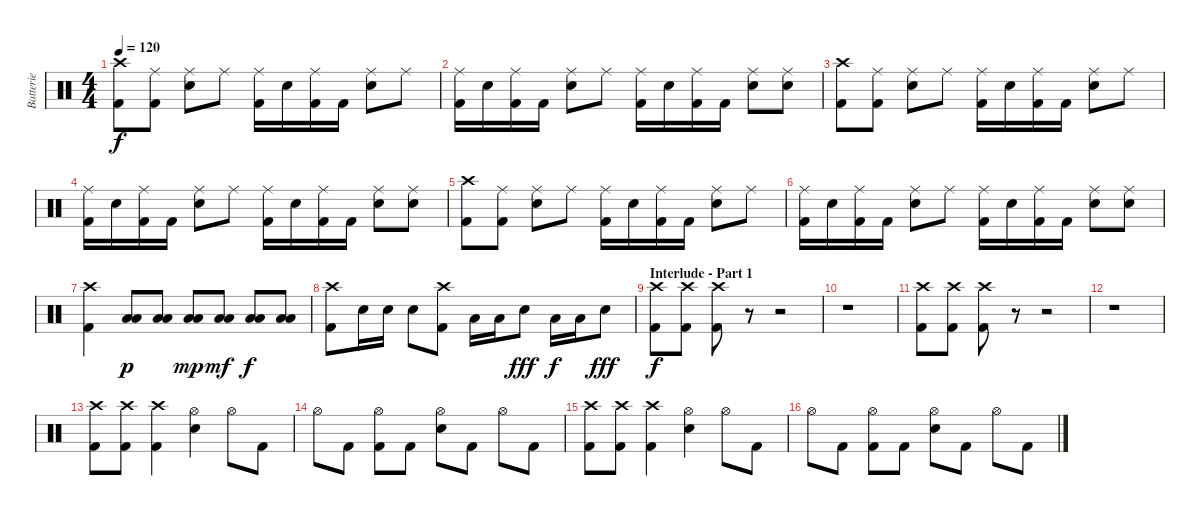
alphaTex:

\track ("Batterie" "Batterie") {instrument percussion}
\staff {score}
\articulation defaults
\ts (4 4)
\tempo 120
\clef neutral
\ks c
("Crash high (hit)" "Kick (hit) 2").8{dy f} ("Ride (middle)" "Kick (hit) 2").8 ("Ride (middle)" "Electric Snare (hit)").8 "Ride (middle)".8 ("Ride (middle)" "Kick (hit) 2").16 "Electric Snare (hit)".16 ("Ride (middle)" "Kick (hit) 2").16 "Kick (hit) 2".16 ("Ride (middle)" "Electric Snare (hit)").8 "Ride (middle)".8 |
("Ride (middle)" "Kick (hit) 2").16 "Electric Snare (hit)".16 ("Ride (middle)" "Kick (hit) 2").16 "Kick (hit) 2".16 ("Ride (middle)" "Electric Snare (hit)").8 "Ride (middle)".8 ("Ride (middle)" "Kick (hit) 2").16 "Electric Snare (hit)".16 ("Ride (middle)" "Kick (hit) 2").16 "Kick (hit) 2".16 ("Ride (middle)" "Electric Snare (hit)").8 ("Ride (middle)" "Electric Snare (hit)").8 |
("Crash high (hit)" "Kick (hit) 2").8 ("Ride (middle)" "Kick (hit) 2").8 ("Ride (middle)" "Electric Snare (hit)").8 "Ride (middle)".8 ("Ride (middle)" "Kick (hit) 2").16 "Electric Snare (hit)".16 ("Ride (middle)" "Kick (hit) 2").16 "Kick (hit) 2".16 ("Ride (middle)" "Electric Snare (hit)").8 "Ride (middle)".8 |
("Ride (middle)" "Kick (hit) 2").16 "Electric Snare (hit)".16 ("Ride (middle)" "Kick (hit) 2").16 "Kick (hit) 2".16 ("Ride (middle)" "Electric Snare (hit)").8 "Ride (middle)".8 ("Ride (middle)" "Kick (hit) 2").16 "Electric Snare (hit)".16 ("Ride (middle)" "Kick (hit) 2").16 "Kick (hit) 2".16 ("Ride (middle)" "Electric Snare (hit)").8 ("Ride (middle)" "Electric Snare (hit)").8 |
("Crash high (hit)" "Kick (hit) 2").8 ("Ride (middle)" "Kick (hit) 2").8 ("Ride (middle)" "Electric Snare (hit)").8 "Ride (middle)".8 ("Ride (middle)" "Kick (hit) 2").16 "Electric Snare (hit)".16 ("Ride (middle)" "Kick (hit) 2").16 "Kick (hit) 2".16 ("Ride (middle)" "Electric Snare (hit)").8 "Ride (middle)".8 |
("Ride (middle)" "Kick (hit) 2").16 "Electric Snare (hit)".16 ("Ride (middle)" "Kick (hit) 2").16 "Kick (hit) 2".16 ("Ride (middle)" "Electric Snare (hit)").8 "Ride (middle)".8 ("Ride (middle)" "Kick (hit) 2").16 "Electric Snare (hit)".16 ("Ride (middle)" "Kick (hit) 2").16 "Kick (hit) 2".16 ("Ride (middle)" "Electric Snare (hit)").8 ("Ride (middle)" "Electric Snare (hit)").8 |
("Crash high (hit)" "Kick (hit) 2").4 ("Low Floor Tom (hit)" "Low Tom (hit)").8{dy p} ("Low Floor Tom (hit)" "Low Tom (hit)").8 ("Low Floor Tom (hit)" "Low Tom (hit)").8{dy mp} ("Low Floor Tom (hit)" "Low Tom (hit)").8{dy mf} ("Low Floor Tom (hit)" "Low Tom (hit)").8{dy f} ("Low Floor Tom (hit)" "Low Tom (hit)").8 |
("Crash high (hit)" "Kick (hit) 2").8 "Electric Snare (hit)".16 "Electric Snare (hit)".16 "Electric Snare (hit)".8 ("Crash high (hit)" "Kick (hit) 2").8 "Low Tom (hit)".16 "Low Tom (hit)".16 "Electric Snare (hit)".8{dy fff} "Low Tom (hit)".16{dy f} "Low Tom (hit)".16 "Electric Snare (hit)".8{dy fff} |
\section ("" "Interlude - Part 1")
("Crash high (hit)" "Kick (hit) 2").8{dy f} ("Crash high (hit)" "Kick (hit) 2").8 ("Crash high (hit)" "Kick (hit) 2").8 r.8 r.2 |
r.1 |
("Crash high (hit)" "Kick (hit) 2").8 ("Crash high (hit)" "Kick (hit) 2").8 ("Crash high (hit)" "Kick (hit) 2").8 r.8 r.2 |
r.1 |
("Crash high (hit)" "Kick (hit) 2").8 ("Crash high (hit)" "Kick (hit) 2").8 ("Crash high (hit)" "Kick (hit) 2").4 ("Hi-Hat (open)" "Electric Snare (hit)").4 "Hi-Hat (open)".8 "Kick (hit) 2".8 |
"Hi-Hat (open)".8 "Kick (hit) 2".8 ("Hi-Hat (open)" "Kick (hit) 2").8 "Kick (hit) 2".8 ("Hi-Hat (open)" "Electric Snare (hit)").8 "Kick (hit) 2".8 "Hi-Hat (open)".8 "Kick (hit) 2".8 |
("Crash high (hit)" "Kick (hit) 2").8 ("Crash high (hit)" "Kick (hit) 2").8 ("Crash high (hit)" "Kick (hit) 2").4 ("Hi-Hat (open)" "Electric Snare (hit)").4 "Hi-Hat (open)".8 "Kick (hit) 2".8 |
"Hi-Hat (open)".8 "Kick (hit) 2".8 ("Hi-Hat (open)" "Kick (hit) 2").8 "Kick (hit) 2".8 ("Hi-Hat (open)" "Electric Snare (hit)").8 "Kick (hit) 2".8 "Hi-Hat (open)".8 "Kick (hit) 2".8
